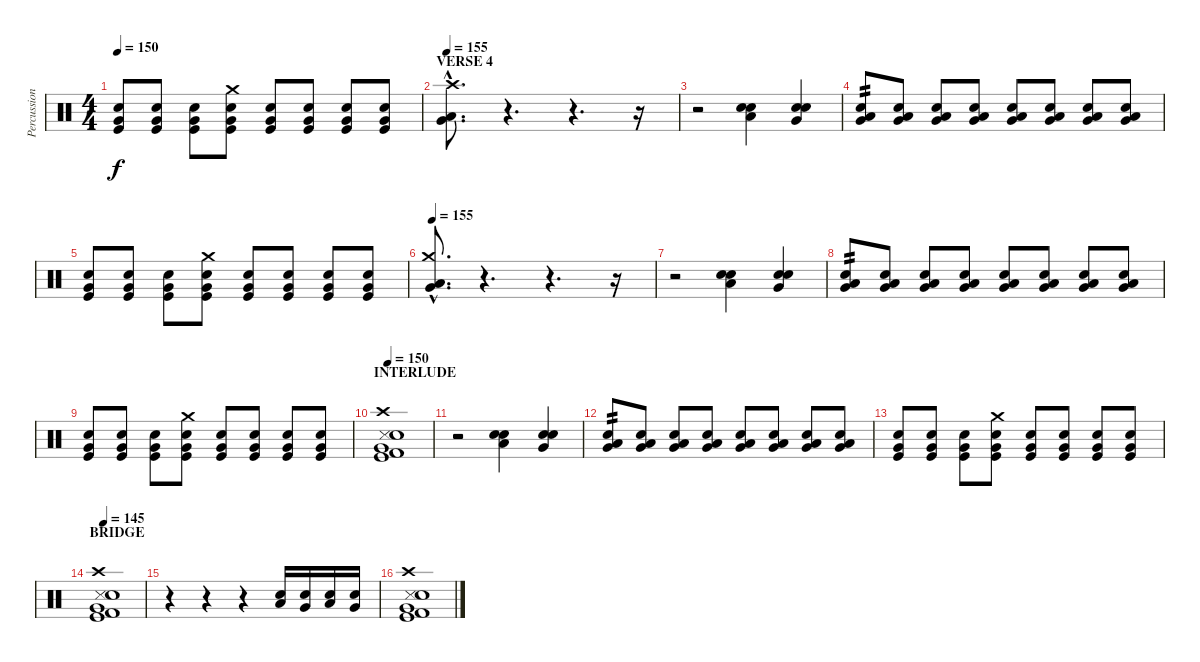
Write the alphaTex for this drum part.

\track ("Percussion-group" "Percussion") {instrument percussion}
\staff {score}
\articulation defaults
\ts (4 4)
\tempo 150
\clef neutral
\ks c
("Very Low Tom (hit)" "Kick (hit)" "Electric Snare (hit)").8{dy f} ("Very Low Tom (hit)" "Kick (hit)" "Electric Snare (hit)").8 ("Very Low Tom (hit)" "Kick (hit)" "Electric Snare (hit)").8 ("Very Low Tom (hit)" "Kick (hit)" "Electric Snare (hit)" "Crash medium (hit)").8 ("Very Low Tom (hit)" "Kick (hit)" "Electric Snare (hit)").8 ("Very Low Tom (hit)" "Kick (hit)" "Electric Snare (hit)").8 ("Very Low Tom (hit)" "Kick (hit)" "Electric Snare (hit)").8 ("Very Low Tom (hit)" "Kick (hit)" "Electric Snare (hit)").8 |
\section ("" "VERSE 4")
\tempo 155
("Very Low Tom (hit)"{hac} "Low Tom (hit)"{hac} "Crash high (hit)"{hac}).8{d} r.4{d} r.4{d} r.16 |
r.2 ("Low Tom (hit)" "Electric Snare (hit)" "Snare (hit) 2").4 ("Very Low Tom (hit)" "Electric Snare (hit)" "Snare (hit) 2").4 |
("Low Tom (hit)" "Very Low Tom (hit)" "Electric Snare (hit)").8{tp 2} ("Low Tom (hit)" "Very Low Tom (hit)" "Electric Snare (hit)").8 ("Low Tom (hit)" "Very Low Tom (hit)" "Electric Snare (hit)").8 ("Low Tom (hit)" "Very Low Tom (hit)" "Electric Snare (hit)").8 ("Low Tom (hit)" "Very Low Tom (hit)" "Electric Snare (hit)").8 ("Low Tom (hit)" "Very Low Tom (hit)" "Electric Snare (hit)").8 ("Low Tom (hit)" "Very Low Tom (hit)" "Electric Snare (hit)").8 ("Low Tom (hit)" "Very Low Tom (hit)" "Electric Snare (hit)").8 |
("Very Low Tom (hit)" "Kick (hit)" "Electric Snare (hit)").8 ("Very Low Tom (hit)" "Kick (hit)" "Electric Snare (hit)").8 ("Very Low Tom (hit)" "Kick (hit)" "Electric Snare (hit)").8 ("Very Low Tom (hit)" "Kick (hit)" "Electric Snare (hit)" "Crash medium (hit)").8 ("Very Low Tom (hit)" "Kick (hit)" "Electric Snare (hit)").8 ("Very Low Tom (hit)" "Kick (hit)" "Electric Snare (hit)").8 ("Very Low Tom (hit)" "Kick (hit)" "Electric Snare (hit)").8 ("Very Low Tom (hit)" "Kick (hit)" "Electric Snare (hit)").8 |
\tempo 155
("Very Low Tom (hit)"{hac} "Low Tom (hit)"{hac} "Crash medium (hit)"{hac}).8{d} r.4{d} r.4{d} r.16 |
r.2 ("Low Tom (hit)" "Electric Snare (hit)" "Snare (hit) 2").4 ("Very Low Tom (hit)" "Electric Snare (hit)" "Snare (hit) 2").4 |
("Low Tom (hit)" "Very Low Tom (hit)" "Electric Snare (hit)").8{tp 2} ("Low Tom (hit)" "Very Low Tom (hit)" "Electric Snare (hit)").8 ("Low Tom (hit)" "Very Low Tom (hit)" "Electric Snare (hit)").8 ("Low Tom (hit)" "Very Low Tom (hit)" "Electric Snare (hit)").8 ("Low Tom (hit)" "Very Low Tom (hit)" "Electric Snare (hit)").8 ("Low Tom (hit)" "Very Low Tom (hit)" "Electric Snare (hit)").8 ("Low Tom (hit)" "Very Low Tom (hit)" "Electric Snare (hit)").8 ("Low Tom (hit)" "Very Low Tom (hit)" "Electric Snare (hit)").8 |
("Very Low Tom (hit)" "Kick (hit)" "Electric Snare (hit)").8 ("Very Low Tom (hit)" "Kick (hit)" "Electric Snare (hit)").8 ("Very Low Tom (hit)" "Kick (hit)" "Electric Snare (hit)").8 ("Very Low Tom (hit)" "Kick (hit)" "Electric Snare (hit)" "Crash medium (hit)").8 ("Very Low Tom (hit)" "Kick (hit)" "Electric Snare (hit)").8 ("Very Low Tom (hit)" "Kick (hit)" "Electric Snare (hit)").8 ("Very Low Tom (hit)" "Kick (hit)" "Electric Snare (hit)").8 ("Very Low Tom (hit)" "Kick (hit)" "Electric Snare (hit)").8 |
\section ("" "INTERLUDE")
\tempo 150
("Very Low Tom (hit)" "Crash high (hit)" "Kick (hit)" "Metronome (hit)" "Kick (hit) 2" "Electric Snare (hit)").1 |
r.2 ("Low Tom (hit)" "Electric Snare (hit)" "Snare (hit) 2").4 ("Very Low Tom (hit)" "Electric Snare (hit)" "Snare (hit) 2").4 |
("Low Tom (hit)" "Very Low Tom (hit)" "Electric Snare (hit)").8{tp 2} ("Low Tom (hit)" "Very Low Tom (hit)" "Electric Snare (hit)").8 ("Low Tom (hit)" "Very Low Tom (hit)" "Electric Snare (hit)").8 ("Low Tom (hit)" "Very Low Tom (hit)" "Electric Snare (hit)").8 ("Low Tom (hit)" "Very Low Tom (hit)" "Electric Snare (hit)").8 ("Low Tom (hit)" "Very Low Tom (hit)" "Electric Snare (hit)").8 ("Low Tom (hit)" "Very Low Tom (hit)" "Electric Snare (hit)").8 ("Low Tom (hit)" "Very Low Tom (hit)" "Electric Snare (hit)").8 |
("Very Low Tom (hit)" "Kick (hit)" "Electric Snare (hit)").8 ("Very Low Tom (hit)" "Kick (hit)" "Electric Snare (hit)").8 ("Very Low Tom (hit)" "Kick (hit)" "Electric Snare (hit)").8 ("Very Low Tom (hit)" "Kick (hit)" "Electric Snare (hit)" "Crash medium (hit)").8 ("Very Low Tom (hit)" "Kick (hit)" "Electric Snare (hit)").8 ("Very Low Tom (hit)" "Kick (hit)" "Electric Snare (hit)").8 ("Very Low Tom (hit)" "Kick (hit)" "Electric Snare (hit)").8 ("Very Low Tom (hit)" "Kick (hit)" "Electric Snare (hit)").8 |
\section ("" "BRIDGE")
\tempo 150
\tempo 145
("Very Low Tom (hit)" "Crash high (hit)" "Kick (hit)" "Metronome (hit)" "Kick (hit) 2" "Electric Snare (hit)").1 |
r.4 r.4 r.4 ("Low Tom (hit)" "Snare (hit) 2").16 ("Very Low Tom (hit)" "Electric Snare (hit)").16 ("Low Tom (hit)" "Snare (hit) 2").16 ("Very Low Tom (hit)" "Electric Snare (hit)").16 |
("Very Low Tom (hit)" "Crash high (hit)" "Kick (hit)" "Metronome (hit)" "Kick (hit) 2" "Electric Snare (hit)").1
